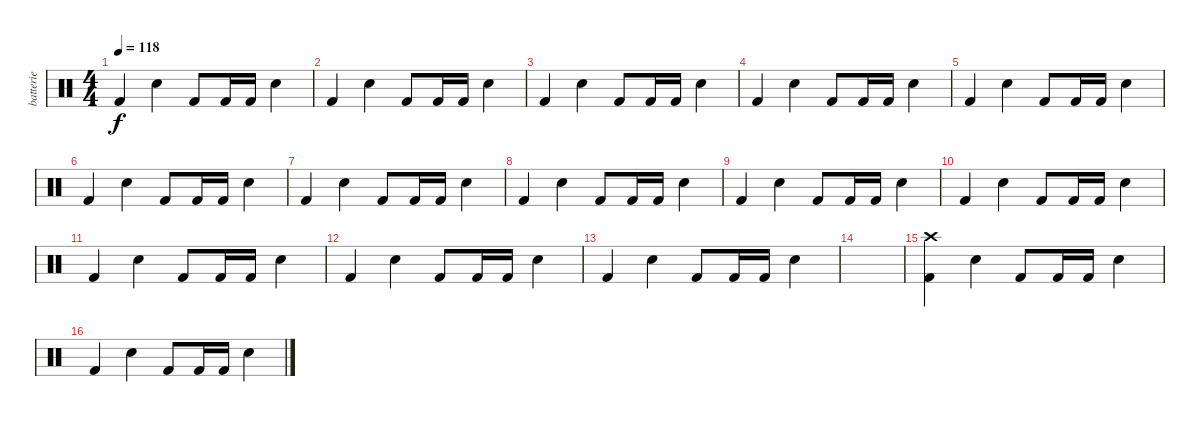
\track ("batterie" "batterie") {instrument percussion}
\staff {score}
\articulation defaults
\ts (4 4)
\tempo 118
\clef neutral
\ks c "Kick (hit) 2".4{dy f} "Electric Snare (hit)".4 "Kick (hit) 2".8 "Kick (hit) 2".16 "Kick (hit) 2".16 "Electric Snare (hit)".4
|
"Kick (hit) 2".4 "Electric Snare (hit)".4 "Kick (hit) 2".8 "Kick (hit) 2".16 "Kick (hit) 2".16 "Electric Snare (hit)".4 |
"Kick (hit) 2".4 "Electric Snare (hit)".4 "Kick (hit) 2".8 "Kick (hit) 2".16 "Kick (hit) 2".16 "Electric Snare (hit)".4 |
"Kick (hit) 2".4 "Electric Snare (hit)".4 "Kick (hit) 2".8 "Kick (hit) 2".16 "Kick (hit) 2".16 "Electric Snare (hit)".4 |
"Kick (hit) 2".4 "Electric Snare (hit)".4 "Kick (hit) 2".8 "Kick (hit) 2".16 "Kick (hit) 2".16 "Electric Snare (hit)".4 |
"Kick (hit) 2".4 "Electric Snare (hit)".4 "Kick (hit) 2".8 "Kick (hit) 2".16 "Kick (hit) 2".16 "Electric Snare (hit)".4 |
"Kick (hit) 2".4 "Electric Snare (hit)".4 "Kick (hit) 2".8 "Kick (hit) 2".16 "Kick (hit) 2".16 "Electric Snare (hit)".4 |
"Kick (hit) 2".4 "Electric Snare (hit)".4 "Kick (hit) 2".8 "Kick (hit) 2".16 "Kick (hit) 2".16 "Electric Snare (hit)".4 |
"Kick (hit) 2".4 "Electric Snare (hit)".4 "Kick (hit) 2".8 "Kick (hit) 2".16 "Kick (hit) 2".16 "Electric Snare (hit)".4 |
"Kick (hit) 2".4 "Electric Snare (hit)".4 "Kick (hit) 2".8 "Kick (hit) 2".16 "Kick (hit) 2".16 "Electric Snare (hit)".4 |
"Kick (hit) 2".4 "Electric Snare (hit)".4 "Kick (hit) 2".8 "Kick (hit) 2".16 "Kick (hit) 2".16 "Electric Snare (hit)".4 |
"Kick (hit) 2".4 "Electric Snare (hit)".4 "Kick (hit) 2".8 "Kick (hit) 2".16 "Kick (hit) 2".16 "Electric Snare (hit)".4 |
"Kick (hit) 2".4 "Electric Snare (hit)".4 "Kick (hit) 2".8 "Kick (hit) 2".16 "Kick (hit) 2".16 "Electric Snare (hit)".4 |
|
("Crash high (hit)" "Kick (hit) 2").4 "Electric Snare (hit)".4 "Kick (hit) 2".8 "Kick (hit) 2".16 "Kick (hit) 2".16 "Electric Snare (hit)".4 |
"Kick (hit) 2".4 "Electric Snare (hit)".4 "Kick (hit) 2".8 "Kick (hit) 2".16 "Kick (hit) 2".16 "Electric Snare (hit)".4
